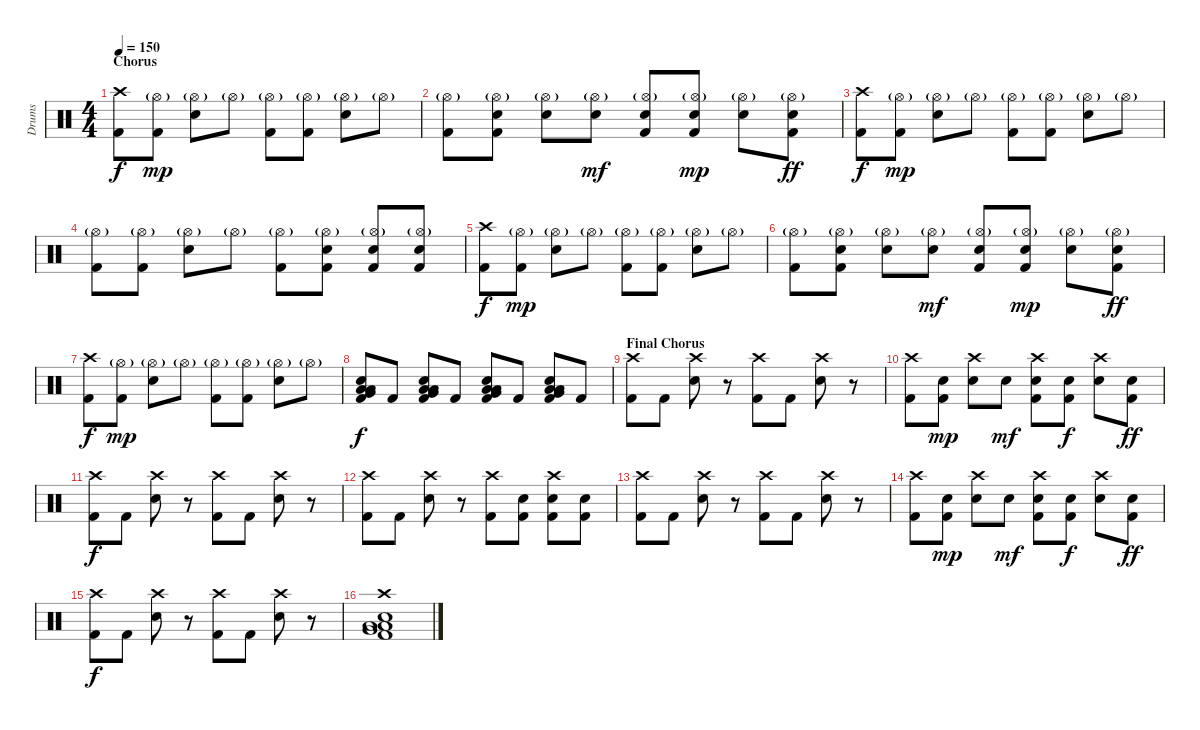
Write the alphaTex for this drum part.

\track ("Drums" "Drums") {instrument percussion}
\staff {score}
\articulation defaults
\ts (4 4)
\section ("" "Chorus")
\tempo 150
\clef neutral
\ks c
("Crash high (hit)" "Kick (hit) 2").8{dy f} ("Hi-Hat (open)"{g} "Kick (hit) 2").8{dy mp} ("Hi-Hat (open)"{g} "Snare (hit) 2").8 "Hi-Hat (open)"{g}.8 ("Hi-Hat (open)"{g} "Kick (hit) 2").8 ("Hi-Hat (open)"{g} "Kick (hit) 2").8 ("Hi-Hat (open)"{g} "Snare (hit) 2").8 "Hi-Hat (open)"{g}.8 |
("Hi-Hat (open)"{g} "Kick (hit) 2").8 ("Hi-Hat (open)"{g} "Snare (hit) 2" "Kick (hit) 2").8 ("Hi-Hat (open)"{g} "Snare (hit) 2").8 ("Hi-Hat (open)"{g} "Snare (hit) 2").8{dy mf} ("Hi-Hat (open)"{g} "Snare (hit) 2" "Kick (hit) 2").8 ("Hi-Hat (open)"{g} "Snare (hit) 2" "Kick (hit) 2").8{dy mp} ("Hi-Hat (open)"{g} "Snare (hit) 2").8 ("Hi-Hat (open)"{g} "Snare (hit) 2" "Kick (hit) 2").8{dy ff} |
("Crash high (hit)" "Kick (hit) 2").8{dy f} ("Hi-Hat (open)"{g} "Kick (hit) 2").8{dy mp} ("Hi-Hat (open)"{g} "Snare (hit) 2").8 "Hi-Hat (open)"{g}.8 ("Hi-Hat (open)"{g} "Kick (hit) 2").8 ("Hi-Hat (open)"{g} "Kick (hit) 2").8 ("Hi-Hat (open)"{g} "Snare (hit) 2").8 "Hi-Hat (open)"{g}.8 |
("Hi-Hat (open)"{g} "Kick (hit) 2").8 ("Hi-Hat (open)"{g} "Kick (hit) 2").8 ("Hi-Hat (open)"{g} "Snare (hit) 2").8 "Hi-Hat (open)"{g}.8 ("Hi-Hat (open)"{g} "Kick (hit) 2").8 ("Hi-Hat (open)"{g} "Snare (hit) 2" "Kick (hit) 2").8 ("Hi-Hat (open)"{g} "Snare (hit) 2" "Kick (hit) 2").8 ("Hi-Hat (open)"{g} "Snare (hit) 2" "Kick (hit) 2").8 |
("Crash high (hit)" "Kick (hit) 2").8{dy f} ("Hi-Hat (open)"{g} "Kick (hit) 2").8{dy mp} ("Hi-Hat (open)"{g} "Snare (hit) 2").8 "Hi-Hat (open)"{g}.8 ("Hi-Hat (open)"{g} "Kick (hit) 2").8 ("Hi-Hat (open)"{g} "Kick (hit) 2").8 ("Hi-Hat (open)"{g} "Snare (hit) 2").8 "Hi-Hat (open)"{g}.8 |
("Hi-Hat (open)"{g} "Kick (hit) 2").8 ("Hi-Hat (open)"{g} "Snare (hit) 2" "Kick (hit) 2").8 ("Hi-Hat (open)"{g} "Snare (hit) 2").8 ("Hi-Hat (open)"{g} "Snare (hit) 2").8{dy mf} ("Hi-Hat (open)"{g} "Snare (hit) 2" "Kick (hit) 2").8 ("Hi-Hat (open)"{g} "Snare (hit) 2" "Kick (hit) 2").8{dy mp} ("Hi-Hat (open)"{g} "Snare (hit) 2").8 ("Hi-Hat (open)"{g} "Snare (hit) 2" "Kick (hit) 2").8{dy ff} |
("Crash high (hit)" "Kick (hit) 2").8{dy f} ("Hi-Hat (open)"{g} "Kick (hit) 2").8{dy mp} ("Hi-Hat (open)"{g} "Snare (hit) 2").8 "Hi-Hat (open)"{g}.8 ("Hi-Hat (open)"{g} "Kick (hit) 2").8 ("Hi-Hat (open)"{g} "Kick (hit) 2").8 ("Hi-Hat (open)"{g} "Snare (hit) 2").8 "Hi-Hat (open)"{g}.8 |
("Low Floor Tom (hit)" "Very Low Tom (hit)" "Low Tom (hit)" "Kick (hit) 2" "Snare (hit) 2").8{dy f} "Kick (hit) 2".8 ("Low Floor Tom (hit)" "Very Low Tom (hit)" "Low Tom (hit)" "Kick (hit) 2" "Snare (hit) 2").8 "Kick (hit) 2".8 ("Low Floor Tom (hit)" "Very Low Tom (hit)" "Low Tom (hit)" "Kick (hit) 2" "Snare (hit) 2").8 "Kick (hit) 2".8 ("Low Floor Tom (hit)" "Very Low Tom (hit)" "Low Tom (hit)" "Kick (hit) 2" "Snare (hit) 2").8 "Kick (hit) 2".8 |
\section ("" "Final Chorus")
("Crash high (hit)" "Kick (hit) 2").8 "Kick (hit) 2".8 ("Crash high (hit)" "Snare (hit) 2").8 r.8 ("Crash high (hit)" "Kick (hit) 2").8 "Kick (hit) 2".8 ("Crash high (hit)" "Snare (hit) 2").8 r.8 |
("Crash high (hit)" "Kick (hit) 2").8 ("Snare (hit) 2" "Kick (hit) 2").8{dy mp} ("Crash high (hit)" "Snare (hit) 2").8 "Snare (hit) 2".8{dy mf} ("Crash high (hit)" "Snare (hit) 2" "Kick (hit) 2").8 ("Snare (hit) 2" "Kick (hit) 2").8{dy f} ("Crash high (hit)" "Snare (hit) 2").8 ("Snare (hit) 2" "Kick (hit) 2").8{dy ff} |
("Crash high (hit)" "Kick (hit) 2").8{dy f} "Kick (hit) 2".8 ("Crash high (hit)" "Snare (hit) 2").8 r.8 ("Crash high (hit)" "Kick (hit) 2").8 "Kick (hit) 2".8 ("Crash high (hit)" "Snare (hit) 2").8 r.8 |
("Crash high (hit)" "Kick (hit) 2").8 "Kick (hit) 2".8 ("Crash high (hit)" "Snare (hit) 2").8 r.8 ("Crash high (hit)" "Kick (hit) 2").8 ("Snare (hit) 2" "Kick (hit) 2").8 ("Crash high (hit)" "Snare (hit) 2" "Kick (hit) 2").8 ("Snare (hit) 2" "Kick (hit) 2").8 |
("Crash high (hit)" "Kick (hit) 2").8 "Kick (hit) 2".8 ("Crash high (hit)" "Snare (hit) 2").8 r.8 ("Crash high (hit)" "Kick (hit) 2").8 "Kick (hit) 2".8 ("Crash high (hit)" "Snare (hit) 2").8 r.8 |
("Crash high (hit)" "Kick (hit) 2").8 ("Snare (hit) 2" "Kick (hit) 2").8{dy mp} ("Crash high (hit)" "Snare (hit) 2").8 "Snare (hit) 2".8{dy mf} ("Crash high (hit)" "Snare (hit) 2" "Kick (hit) 2").8 ("Snare (hit) 2" "Kick (hit) 2").8{dy f} ("Crash high (hit)" "Snare (hit) 2").8 ("Snare (hit) 2" "Kick (hit) 2").8{dy ff} |
("Crash high (hit)" "Kick (hit) 2").8{dy f} "Kick (hit) 2".8 ("Crash high (hit)" "Snare (hit) 2").8 r.8 ("Crash high (hit)" "Kick (hit) 2").8 "Kick (hit) 2".8 ("Crash high (hit)" "Snare (hit) 2").8 r.8 |
("Low Floor Tom (hit)" "Very Low Tom (hit)" "Low Tom (hit)" "Kick (hit) 2" "Snare (hit) 2" "Crash high (hit)").1
